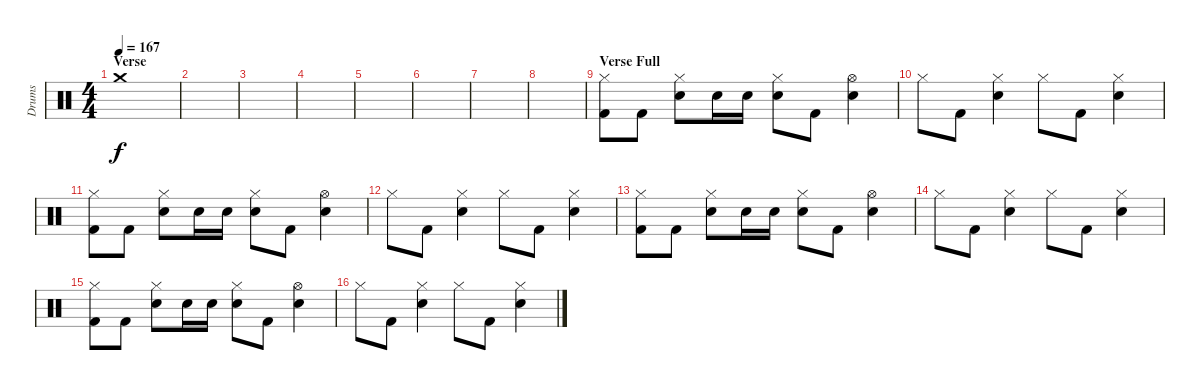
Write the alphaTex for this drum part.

\track ("Drums" "Drums") {instrument percussion}
\staff {score}
\articulation defaults
\ts (4 4)
\section ("" "Verse")
\tempo 167
\clef neutral
\ks c "Crash medium (hit)".1{dy f}
|
|
|
|
|
|
|
|
\section ("" "Verse Full")
("Hi-Hat (closed)" "Kick (hit) 2").8 "Kick (hit) 2".8 ("Hi-Hat (closed)" "Electric Snare (hit)").8 "Electric Snare (hit)".16 "Electric Snare (hit)".16 ("Hi-Hat (closed)" "Electric Snare (hit)").8 "Kick (hit) 2".8 ("Hi-Hat (open)" "Electric Snare (hit)").4 |
"Hi-Hat (closed)".8 "Kick (hit) 2".8 ("Hi-Hat (closed)" "Electric Snare (hit)").4 "Hi-Hat (closed)".8 "Kick (hit) 2".8 ("Hi-Hat (closed)" "Electric Snare (hit)").4 |
("Hi-Hat (closed)" "Kick (hit) 2").8 "Kick (hit) 2".8 ("Hi-Hat (closed)" "Electric Snare (hit)").8 "Electric Snare (hit)".16 "Electric Snare (hit)".16 ("Hi-Hat (closed)" "Electric Snare (hit)").8 "Kick (hit) 2".8 ("Hi-Hat (open)" "Electric Snare (hit)").4 |
"Hi-Hat (closed)".8 "Kick (hit) 2".8 ("Hi-Hat (closed)" "Electric Snare (hit)").4 "Hi-Hat (closed)".8 "Kick (hit) 2".8 ("Hi-Hat (closed)" "Electric Snare (hit)").4 |
("Hi-Hat (closed)" "Kick (hit) 2").8 "Kick (hit) 2".8 ("Hi-Hat (closed)" "Electric Snare (hit)").8 "Electric Snare (hit)".16 "Electric Snare (hit)".16 ("Hi-Hat (closed)" "Electric Snare (hit)").8 "Kick (hit) 2".8 ("Hi-Hat (open)" "Electric Snare (hit)").4 |
"Hi-Hat (closed)".8 "Kick (hit) 2".8 ("Hi-Hat (closed)" "Electric Snare (hit)").4 "Hi-Hat (closed)".8 "Kick (hit) 2".8 ("Hi-Hat (closed)" "Electric Snare (hit)").4 |
("Hi-Hat (closed)" "Kick (hit) 2").8 "Kick (hit) 2".8 ("Hi-Hat (closed)" "Electric Snare (hit)").8 "Electric Snare (hit)".16 "Electric Snare (hit)".16 ("Hi-Hat (closed)" "Electric Snare (hit)").8 "Kick (hit) 2".8 ("Hi-Hat (open)" "Electric Snare (hit)").4 |
"Hi-Hat (closed)".8 "Kick (hit) 2".8 ("Hi-Hat (closed)" "Electric Snare (hit)").4 "Hi-Hat (closed)".8 "Kick (hit) 2".8 ("Hi-Hat (closed)" "Electric Snare (hit)").4
